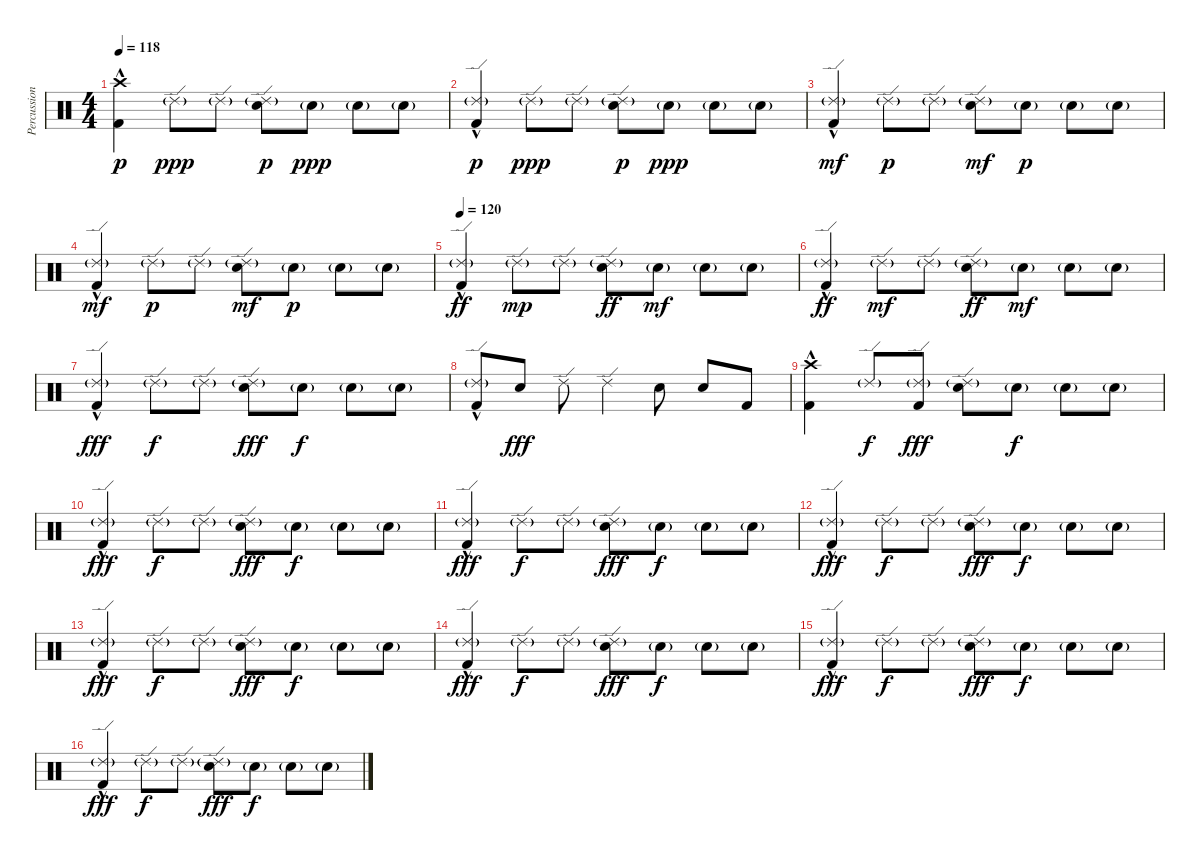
\track ("Percussion" "Percussion") {instrument percussion}
\staff {score}
\articulation defaults
\ts (4 4)
\tempo 118
\clef neutral
\ks c
("Crash high (hit)" "Kick (hit) 2"{hac}).4{dy p} "Ride (edge) 2"{g}.8{dy ppp} "Ride (edge) 2"{g}.8 ("Ride (edge) 2"{g} "Electric Snare (hit)").8{dy p} "Electric Snare (hit)"{g}.8{dy ppp} "Electric Snare (hit)"{g}.8 "Electric Snare (hit)"{g}.8 |
("Ride (edge) 2"{g} "Kick (hit) 2"{hac}).4{dy p} "Ride (edge) 2"{g}.8{dy ppp} "Ride (edge) 2"{g}.8 ("Ride (edge) 2"{g} "Electric Snare (hit)").8{dy p} "Electric Snare (hit)"{g}.8{dy ppp} "Electric Snare (hit)"{g}.8 "Electric Snare (hit)"{g}.8 |
("Ride (edge) 2"{g} "Kick (hit) 2"{hac}).4{dy mf} "Ride (edge) 2"{g}.8{dy p} "Ride (edge) 2"{g}.8 ("Ride (edge) 2"{g} "Electric Snare (hit)").8{dy mf} "Electric Snare (hit)"{g}.8{dy p} "Electric Snare (hit)"{g}.8 "Electric Snare (hit)"{g}.8 |
("Ride (edge) 2"{g} "Kick (hit) 2"{hac}).4{dy mf} "Ride (edge) 2"{g}.8{dy p} "Ride (edge) 2"{g}.8 ("Ride (edge) 2"{g} "Electric Snare (hit)").8{dy mf} "Electric Snare (hit)"{g}.8{dy p} "Electric Snare (hit)"{g}.8 "Electric Snare (hit)"{g}.8 |
\tempo 120
("Ride (edge) 2"{g} "Kick (hit) 2"{hac}).4{dy ff} "Ride (edge) 2"{g}.8{dy mp} "Ride (edge) 2"{g}.8 ("Ride (edge) 2"{g} "Electric Snare (hit)").8{dy ff} "Electric Snare (hit)"{g}.8{dy mf} "Electric Snare (hit)"{g}.8 "Electric Snare (hit)"{g}.8 |
("Ride (edge) 2"{g} "Kick (hit) 2"{hac}).4{dy ff} "Ride (edge) 2"{g}.8{dy mf} "Ride (edge) 2"{g}.8 ("Ride (edge) 2"{g} "Electric Snare (hit)").8{dy ff} "Electric Snare (hit)"{g}.8{dy mf} "Electric Snare (hit)"{g}.8 "Electric Snare (hit)"{g}.8 |
("Ride (edge) 2"{g} "Kick (hit) 2"{hac}).4{dy fff} "Ride (edge) 2"{g}.8{dy f} "Ride (edge) 2"{g}.8 ("Ride (edge) 2"{g} "Electric Snare (hit)").8{dy fff} "Electric Snare (hit)"{g}.8{dy f} "Electric Snare (hit)"{g}.8 "Electric Snare (hit)"{g}.8 |
("Ride (edge) 2"{g} "Kick (hit) 2"{hac}).8 "Electric Snare (hit)".8{dy fff} "Ride (edge) 2".8 "Ride (edge) 2".4 "Electric Snare (hit)".8 "Electric Snare (hit)".8 "Kick (hit) 2".8 |
("Crash high (hit)" "Kick (hit) 2"{hac}).4{volume 16} "Ride (edge) 2"{g}.8{dy f} ("Ride (edge) 2"{g} "Kick (hit) 2").8{dy fff} ("Ride (edge) 2"{g} "Electric Snare (hit)").8 "Electric Snare (hit)"{g}.8{dy f} "Electric Snare (hit)"{g}.8 "Electric Snare (hit)"{g}.8 |
("Ride (edge) 2"{g} "Kick (hit) 2"{hac}).4{dy fff} "Ride (edge) 2"{g}.8{dy f} "Ride (edge) 2"{g}.8 ("Ride (edge) 2"{g} "Electric Snare (hit)").8{dy fff} "Electric Snare (hit)"{g}.8{dy f} "Electric Snare (hit)"{g}.8 "Electric Snare (hit)"{g}.8 |
("Ride (edge) 2"{g} "Kick (hit) 2"{hac}).4{dy fff} "Ride (edge) 2"{g}.8{dy f} "Ride (edge) 2"{g}.8 ("Ride (edge) 2"{g} "Electric Snare (hit)").8{dy fff} "Electric Snare (hit)"{g}.8{dy f} "Electric Snare (hit)"{g}.8 "Electric Snare (hit)"{g}.8 |
("Ride (edge) 2"{g} "Kick (hit) 2"{hac}).4{dy fff} "Ride (edge) 2"{g}.8{dy f} "Ride (edge) 2"{g}.8 ("Ride (edge) 2"{g} "Electric Snare (hit)").8{dy fff} "Electric Snare (hit)"{g}.8{dy f} "Electric Snare (hit)"{g}.8 "Electric Snare (hit)"{g}.8 |
("Ride (edge) 2"{g} "Kick (hit) 2"{hac}).4{dy fff} "Ride (edge) 2"{g}.8{dy f} "Ride (edge) 2"{g}.8 ("Ride (edge) 2"{g} "Electric Snare (hit)").8{dy fff} "Electric Snare (hit)"{g}.8{dy f} "Electric Snare (hit)"{g}.8 "Electric Snare (hit)"{g}.8 |
("Ride (edge) 2"{g} "Kick (hit) 2"{hac}).4{dy fff} "Ride (edge) 2"{g}.8{dy f} "Ride (edge) 2"{g}.8 ("Ride (edge) 2"{g} "Electric Snare (hit)").8{dy fff} "Electric Snare (hit)"{g}.8{dy f} "Electric Snare (hit)"{g}.8 "Electric Snare (hit)"{g}.8 |
("Ride (edge) 2"{g} "Kick (hit) 2"{hac}).4{dy fff} "Ride (edge) 2"{g}.8{dy f} "Ride (edge) 2"{g}.8 ("Ride (edge) 2"{g} "Electric Snare (hit)").8{dy fff} "Electric Snare (hit)"{g}.8{dy f} "Electric Snare (hit)"{g}.8 "Electric Snare (hit)"{g}.8 |
("Ride (edge) 2"{g} "Kick (hit) 2"{hac}).4{dy fff} "Ride (edge) 2"{g}.8{dy f} "Ride (edge) 2"{g}.8 ("Ride (edge) 2"{g} "Electric Snare (hit)").8{dy fff} "Electric Snare (hit)"{g}.8{dy f} "Electric Snare (hit)"{g}.8 "Electric Snare (hit)"{g}.8
